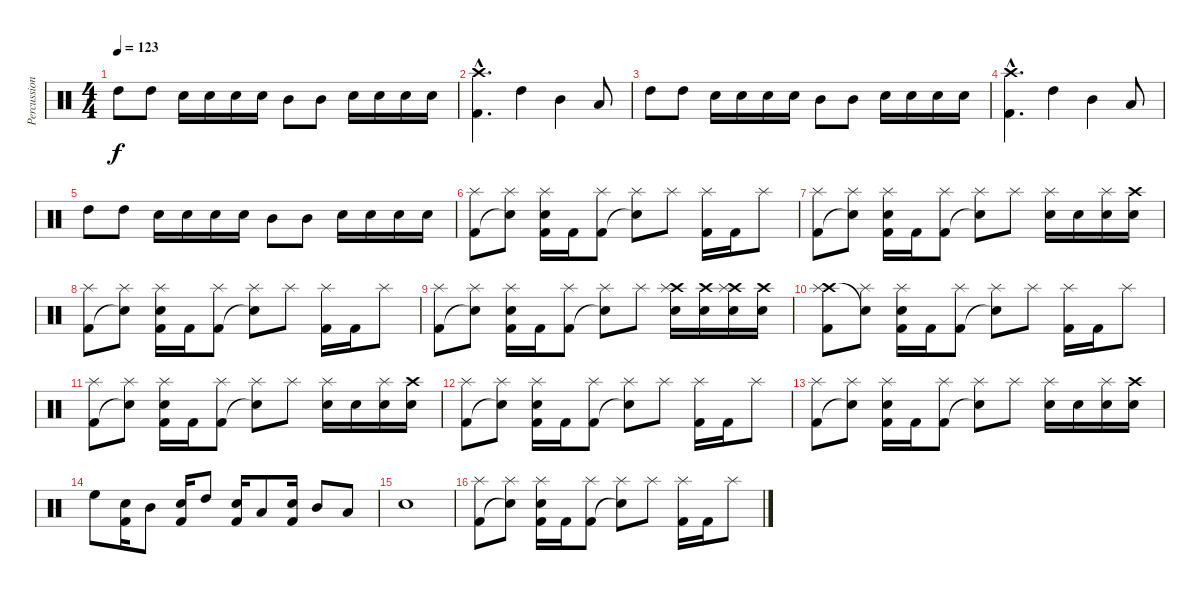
\track ("Percussion" "Percussion") {instrument percussion}
\staff {score}
\articulation defaults
\ts (4 4)
\tempo 123
\clef neutral
\ks c "High Tom (hit)".8{dy f} "High Tom (hit)".8 "Electric Snare (hit)".16 "Electric Snare (hit)".16 "Electric Snare (hit)".16 "Electric Snare (hit)".16 "Mid Tom (hit)".8 "Mid Tom (hit)".8 "Electric Snare (hit)".16 "Electric Snare (hit)".16 "Electric Snare (hit)".16 "Electric Snare (hit)".16
|
("Crash high (hit)"{hac} "Kick (hit) 2"{hac}).4{d} "High Tom (hit)".4 "Mid Tom (hit)".4 "Low Tom (hit)".8 |
"High Tom (hit)".8 "High Tom (hit)".8 "Electric Snare (hit)".16 "Electric Snare (hit)".16 "Electric Snare (hit)".16 "Electric Snare (hit)".16 "Mid Tom (hit)".8 "Mid Tom (hit)".8 "Electric Snare (hit)".16 "Electric Snare (hit)".16 "Electric Snare (hit)".16 "Electric Snare (hit)".16 |
("Crash high (hit)"{hac} "Kick (hit) 2"{hac}).4{d} "High Tom (hit)".4 "Mid Tom (hit)".4 "Low Tom (hit)".8 |
"High Tom (hit)".8 "High Tom (hit)".8 "Electric Snare (hit)".16 "Electric Snare (hit)".16 "Electric Snare (hit)".16 "Electric Snare (hit)".16 "Mid Tom (hit)".8 "Mid Tom (hit)".8 "Electric Snare (hit)".16 "Electric Snare (hit)".16 "Electric Snare (hit)".16 "Electric Snare (hit)".16 |
("Kick (hit) 2" "Splash (hit)").8 ("Snare (hit)"{t} "Splash (hit)").8 ("Electric Snare (hit)" "Kick (hit) 2" "Splash (hit)").16 "Kick (hit) 2".16 ("Kick (hit) 2" "Splash (hit)").8 ("Snare (hit)"{t} "Splash (hit)").8 "Splash (hit)".8 ("Kick (hit) 2" "Splash (hit)").16 "Kick (hit) 2".16 "Splash (hit)".8 |
("Kick (hit) 2" "Splash (hit)").8 ("Snare (hit)"{t} "Splash (hit)").8 ("Electric Snare (hit)" "Kick (hit) 2" "Splash (hit)").16 "Kick (hit) 2".16 ("Kick (hit) 2" "Splash (hit)").8 ("Snare (hit)"{t} "Splash (hit)").8 "Splash (hit)".8 ("Snare (hit) 2" "Splash (hit)").16 "Snare (hit) 2".16 ("Snare (hit) 2" "Splash (hit)").16 ("Crash high (hit)" "Snare (hit) 2").16 |
("Kick (hit) 2" "Splash (hit)").8 ("Snare (hit)"{t} "Splash (hit)").8 ("Electric Snare (hit)" "Kick (hit) 2" "Splash (hit)").16 "Kick (hit) 2".16 ("Kick (hit) 2" "Splash (hit)").8 ("Snare (hit)"{t} "Splash (hit)").8 "Splash (hit)".8 ("Kick (hit) 2" "Splash (hit)").16 "Kick (hit) 2".16 "Splash (hit)".8 |
("Kick (hit) 2" "Splash (hit)").8 ("Snare (hit)"{t} "Splash (hit)").8 ("Electric Snare (hit)" "Kick (hit) 2" "Splash (hit)").16 "Kick (hit) 2".16 ("Kick (hit) 2" "Splash (hit)").8 ("Snare (hit)"{t} "Splash (hit)").8 "Splash (hit)".8 ("Crash high (hit)" "Electric Snare (hit)" "Splash (hit)").16 ("Crash high (hit)" "Electric Snare (hit)").16 ("Crash high (hit)" "Electric Snare (hit)" "Splash (hit)").16 ("Crash high (hit)" "Electric Snare (hit)").16 |
("Crash high (hit)" "Kick (hit) 2" "Splash (hit)").8 ("Snare (hit)"{t} "Splash (hit)").8 ("Electric Snare (hit)" "Kick (hit) 2" "Splash (hit)").16 "Kick (hit) 2".16 ("Kick (hit) 2" "Splash (hit)").8 ("Snare (hit)"{t} "Splash (hit)").8 "Splash (hit)".8 ("Kick (hit) 2" "Splash (hit)").16 "Kick (hit) 2".16 "Splash (hit)".8 |
("Kick (hit) 2" "Splash (hit)").8 ("Snare (hit)"{t} "Splash (hit)").8 ("Electric Snare (hit)" "Kick (hit) 2" "Splash (hit)").16 "Kick (hit) 2".16 ("Kick (hit) 2" "Splash (hit)").8 ("Snare (hit)"{t} "Splash (hit)").8 "Splash (hit)".8 ("Electric Snare (hit)" "Splash (hit)").16 "Electric Snare (hit)".16 ("Electric Snare (hit)" "Splash (hit)").16 ("Crash high (hit)" "Electric Snare (hit)").16 |
("Kick (hit) 2" "Splash (hit)").8 ("Snare (hit)"{t} "Splash (hit)").8 ("Electric Snare (hit)" "Kick (hit) 2" "Splash (hit)").16 "Kick (hit) 2".16 ("Kick (hit) 2" "Splash (hit)").8 ("Snare (hit)"{t} "Splash (hit)").8 "Splash (hit)".8 ("Kick (hit) 2" "Splash (hit)").16 "Kick (hit) 2".16 "Splash (hit)".8 |
("Kick (hit) 2" "Splash (hit)").8 ("Snare (hit)"{t} "Splash (hit)").8 ("Electric Snare (hit)" "Kick (hit) 2" "Splash (hit)").16 "Kick (hit) 2".16 ("Kick (hit) 2" "Splash (hit)").8 ("Snare (hit)"{t} "Splash (hit)").8 "Splash (hit)".8 ("Electric Snare (hit)" "Splash (hit)").16 "Electric Snare (hit)".16 ("Electric Snare (hit)" "Splash (hit)").16 ("Crash high (hit)" "Electric Snare (hit)").16 |
"High Floor Tom (hit)".8 ("Electric Snare (hit)" "Kick (hit) 2").16 "Mid Tom (hit)".8 ("Electric Snare (hit)" "Kick (hit) 2").16 "High Tom (hit)".8 ("Electric Snare (hit)" "Kick (hit) 2").16 "Low Tom (hit)".8 ("Electric Snare (hit)" "Kick (hit) 2").16 "Mid Tom (hit)".8 "Low Tom (hit)".8 |
"Electric Snare (hit)".1 |
("Kick (hit) 2" "Splash (hit)").8 ("Snare (hit)"{t} "Splash (hit)").8 ("Electric Snare (hit)" "Kick (hit) 2" "Splash (hit)").16 "Kick (hit) 2".16 ("Kick (hit) 2" "Splash (hit)").8 ("Snare (hit)"{t} "Splash (hit)").8 "Splash (hit)".8 ("Kick (hit) 2" "Splash (hit)").16 "Kick (hit) 2".16 "Splash (hit)".8
